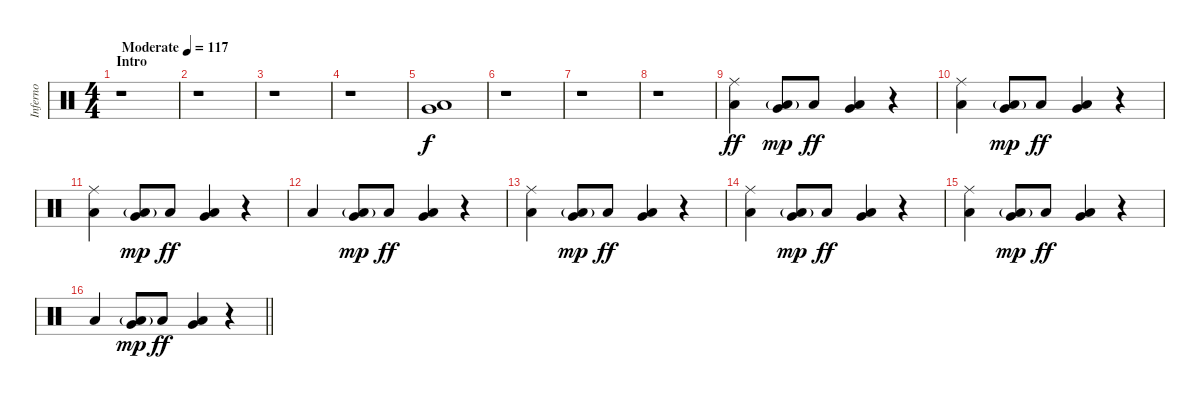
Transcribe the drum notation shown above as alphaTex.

\track ("Inferno" "Inferno") {instrument percussion}
\staff {score}
\articulation defaults
\ts (4 4)
\section ("" "Intro")
\tempo (117 "Moderate")
\clef neutral
\ks c
r.1{dy f} |
r.1 |
r.1 |
r.1 |
("Very Low Tom (hit)" "Low Floor Tom (hit)").1 |
r.1 |
r.1 |
r.1 |
("Ride (middle)" "Low Floor Tom (hit)").4{dy ff} ("Very Low Tom (hit)" "Low Floor Tom (hit)"{g}).8{dy mp} "Low Floor Tom (hit)".8{dy ff} ("Very Low Tom (hit)" "Low Floor Tom (hit)").4 r.4 |
("Ride (middle)" "Low Floor Tom (hit)").4 ("Very Low Tom (hit)" "Low Floor Tom (hit)"{g}).8{dy mp} "Low Floor Tom (hit)".8{dy ff} ("Very Low Tom (hit)" "Low Floor Tom (hit)").4 r.4 |
("Ride (middle)" "Low Floor Tom (hit)").4 ("Very Low Tom (hit)" "Low Floor Tom (hit)"{g}).8{dy mp} "Low Floor Tom (hit)".8{dy ff} ("Very Low Tom (hit)" "Low Floor Tom (hit)").4 r.4 |
"Low Floor Tom (hit)".4 ("Very Low Tom (hit)" "Low Floor Tom (hit)"{g}).8{dy mp} "Low Floor Tom (hit)".8{dy ff} ("Very Low Tom (hit)" "Low Floor Tom (hit)").4 r.4 |
("Ride (middle)" "Low Floor Tom (hit)").4 ("Very Low Tom (hit)" "Low Floor Tom (hit)"{g}).8{dy mp} "Low Floor Tom (hit)".8{dy ff} ("Very Low Tom (hit)" "Low Floor Tom (hit)").4 r.4 |
("Ride (middle)" "Low Floor Tom (hit)").4 ("Very Low Tom (hit)" "Low Floor Tom (hit)"{g}).8{dy mp} "Low Floor Tom (hit)".8{dy ff} ("Very Low Tom (hit)" "Low Floor Tom (hit)").4 r.4 |
("Ride (middle)" "Low Floor Tom (hit)").4 ("Very Low Tom (hit)" "Low Floor Tom (hit)"{g}).8{dy mp} "Low Floor Tom (hit)".8{dy ff} ("Very Low Tom (hit)" "Low Floor Tom (hit)").4 r.4 |
\barLineRight lightlight "Low Floor Tom (hit)".4
("Very Low Tom (hit)" "Low Floor Tom (hit)"{g}).8{dy mp} "Low Floor Tom (hit)".8{dy ff} ("Very Low Tom (hit)" "Low Floor Tom (hit)").4 r.4
